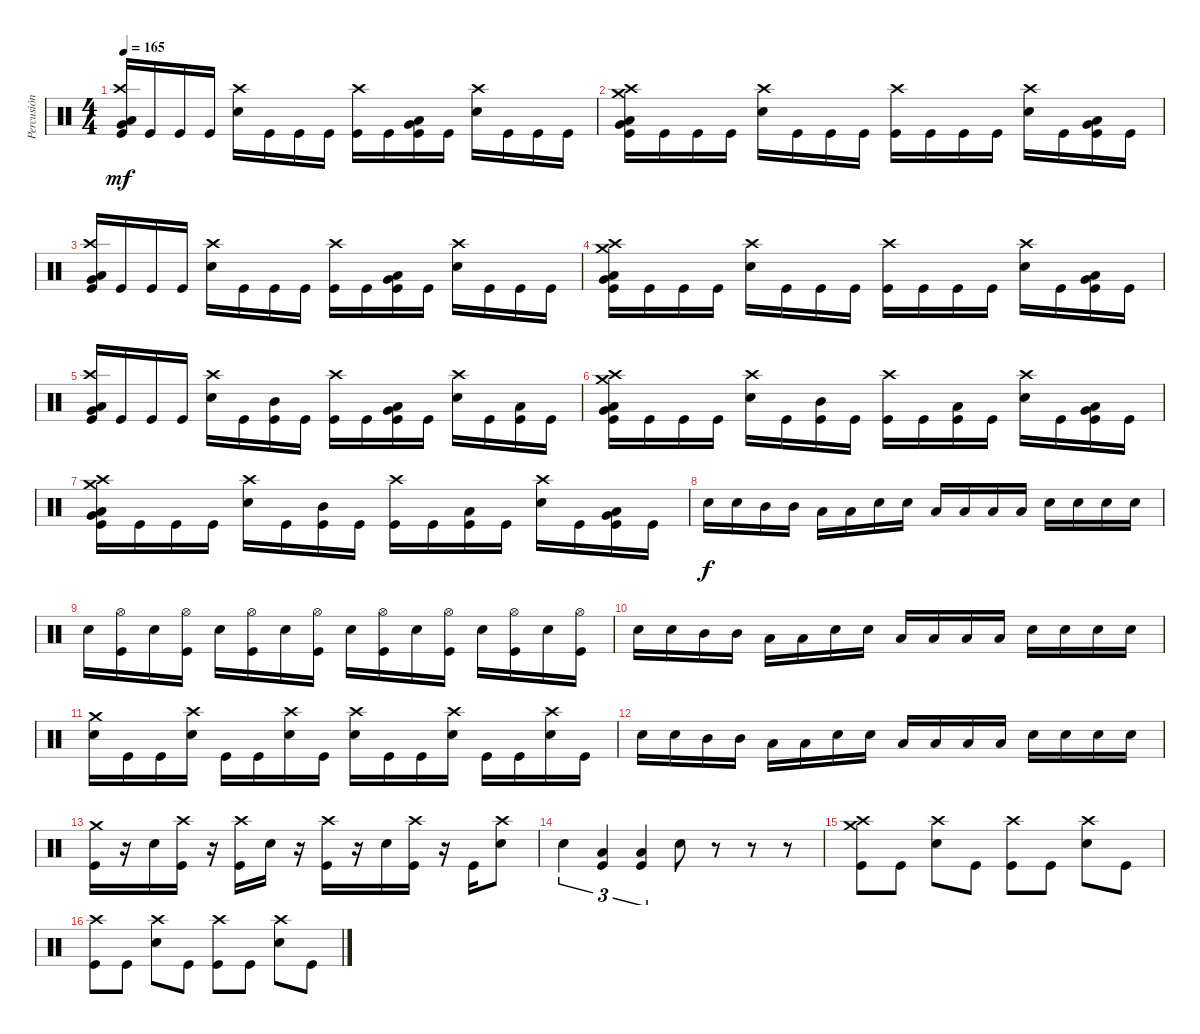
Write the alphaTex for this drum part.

\track ("Percusión" "Percusión") {instrument percussion}
\staff {score}
\articulation defaults
\ts (4 4)
\tempo 165
\clef neutral
\ks c
("Very Low Tom (hit)" "Low Tom (hit)" "Crash high (hit)" "Kick (hit)").16{dy mf} "Kick (hit)".16 "Kick (hit)".16 "Kick (hit)".16 ("Crash high (hit)" "Electric Snare (hit)").16 "Kick (hit)".16 "Kick (hit)".16 "Kick (hit)".16 ("Crash high (hit)" "Kick (hit)").16 "Kick (hit)".16 ("Very Low Tom (hit)" "Low Tom (hit)" "Kick (hit)").16 "Kick (hit)".16 ("Crash high (hit)" "Electric Snare (hit)").16 "Kick (hit)".16 "Kick (hit)".16 "Kick (hit)".16 |
("Very Low Tom (hit)" "Low Tom (hit)" "Crash medium (hit)" "Crash high (hit)" "Kick (hit)").16 "Kick (hit)".16 "Kick (hit)".16 "Kick (hit)".16 ("Crash high (hit)" "Electric Snare (hit)").16 "Kick (hit)".16 "Kick (hit)".16 "Kick (hit)".16 ("Crash high (hit)" "Kick (hit)").16 "Kick (hit)".16 "Kick (hit)".16 "Kick (hit)".16 ("Crash high (hit)" "Electric Snare (hit)").16 "Kick (hit)".16 ("Very Low Tom (hit)" "Low Tom (hit)" "Kick (hit)").16 "Kick (hit)".16 |
("Very Low Tom (hit)" "Low Tom (hit)" "Crash high (hit)" "Kick (hit)").16 "Kick (hit)".16 "Kick (hit)".16 "Kick (hit)".16 ("Crash high (hit)" "Electric Snare (hit)").16 "Kick (hit)".16 "Kick (hit)".16 "Kick (hit)".16 ("Crash high (hit)" "Kick (hit)").16 "Kick (hit)".16 ("Very Low Tom (hit)" "Low Tom (hit)" "Kick (hit)").16 "Kick (hit)".16 ("Crash high (hit)" "Electric Snare (hit)").16 "Kick (hit)".16 "Kick (hit)".16 "Kick (hit)".16 |
("Very Low Tom (hit)" "Low Tom (hit)" "Crash medium (hit)" "Crash high (hit)" "Kick (hit)").16 "Kick (hit)".16 "Kick (hit)".16 "Kick (hit)".16 ("Crash high (hit)" "Electric Snare (hit)").16 "Kick (hit)".16 "Kick (hit)".16 "Kick (hit)".16 ("Crash high (hit)" "Kick (hit)").16 "Kick (hit)".16 "Kick (hit)".16 "Kick (hit)".16 ("Crash high (hit)" "Electric Snare (hit)").16 "Kick (hit)".16 ("Very Low Tom (hit)" "Low Tom (hit)" "Kick (hit)").16 "Kick (hit)".16 |
("Very Low Tom (hit)" "Low Tom (hit)" "Crash high (hit)" "Kick (hit)").16 "Kick (hit)".16 "Kick (hit)".16 "Kick (hit)".16 ("Crash high (hit)" "Electric Snare (hit)").16 "Kick (hit)".16 ("Mid Tom (hit)" "Kick (hit)").16 "Kick (hit)".16 ("Crash high (hit)" "Kick (hit)").16 "Kick (hit)".16 ("Very Low Tom (hit)" "Low Tom (hit)" "Kick (hit)").16 "Kick (hit)".16 ("Crash high (hit)" "Electric Snare (hit)").16 "Kick (hit)".16 ("Low Tom (hit)" "Kick (hit)").16 "Kick (hit)".16 |
("Very Low Tom (hit)" "Low Tom (hit)" "Crash medium (hit)" "Crash high (hit)" "Kick (hit)").16 "Kick (hit)".16 "Kick (hit)".16 "Kick (hit)".16 ("Crash high (hit)" "Electric Snare (hit)").16 "Kick (hit)".16 ("Mid Tom (hit)" "Kick (hit)").16 "Kick (hit)".16 ("Crash high (hit)" "Kick (hit)").16 "Kick (hit)".16 ("Low Tom (hit)" "Kick (hit)").16 "Kick (hit)".16 ("Crash high (hit)" "Electric Snare (hit)").16 "Kick (hit)".16 ("Very Low Tom (hit)" "Low Tom (hit)" "Kick (hit)").16 "Kick (hit)".16 |
("Very Low Tom (hit)" "Low Tom (hit)" "Crash medium (hit)" "Crash high (hit)" "Kick (hit)").16 "Kick (hit)".16 "Kick (hit)".16 "Kick (hit)".16 ("Crash high (hit)" "Electric Snare (hit)").16 "Kick (hit)".16 ("Mid Tom (hit)" "Kick (hit)").16 "Kick (hit)".16 ("Crash high (hit)" "Kick (hit)").16 "Kick (hit)".16 ("Low Tom (hit)" "Kick (hit)").16 "Kick (hit)".16 ("Crash high (hit)" "Electric Snare (hit)").16 "Kick (hit)".16 ("Very Low Tom (hit)" "Low Tom (hit)" "Kick (hit)").16 "Kick (hit)".16 |
"Electric Snare (hit)".16{dy f} "Electric Snare (hit)".16 "Mid Tom (hit)".16 "Mid Tom (hit)".16 "Low Tom (hit)".16 "Low Tom (hit)".16 "Electric Snare (hit)".16 "Electric Snare (hit)".16 "Low Tom (hit)".16 "Low Tom (hit)".16 "Low Tom (hit)".16 "Low Tom (hit)".16 "Electric Snare (hit)".16 "Electric Snare (hit)".16 "Electric Snare (hit)".16 "Electric Snare (hit)".16 |
"Electric Snare (hit)".16 ("Hi-Hat (open)" "Kick (hit)").16 "Electric Snare (hit)".16 ("Hi-Hat (open)" "Kick (hit)").16 "Electric Snare (hit)".16 ("Hi-Hat (open)" "Kick (hit)").16 "Electric Snare (hit)".16 ("Hi-Hat (open)" "Kick (hit)").16 "Electric Snare (hit)".16 ("Hi-Hat (open)" "Kick (hit)").16 "Electric Snare (hit)".16 ("Hi-Hat (open)" "Kick (hit)").16 "Electric Snare (hit)".16 ("Hi-Hat (open)" "Kick (hit)").16 "Electric Snare (hit)".16 ("Hi-Hat (open)" "Kick (hit)").16 |
"Electric Snare (hit)".16 "Electric Snare (hit)".16 "Mid Tom (hit)".16 "Mid Tom (hit)".16 "Low Tom (hit)".16 "Low Tom (hit)".16 "Electric Snare (hit)".16 "Electric Snare (hit)".16 "Low Tom (hit)".16 "Low Tom (hit)".16 "Low Tom (hit)".16 "Low Tom (hit)".16 "Electric Snare (hit)".16 "Electric Snare (hit)".16 "Electric Snare (hit)".16 "Electric Snare (hit)".16 |
("Crash medium (hit)" "Electric Snare (hit)").16 "Kick (hit)".16 "Kick (hit)".16 ("Crash high (hit)" "Electric Snare (hit)").16 "Kick (hit)".16 "Kick (hit)".16 ("Crash high (hit)" "Electric Snare (hit)").16 "Kick (hit)".16 ("Crash high (hit)" "Electric Snare (hit)").16 "Kick (hit)".16 "Kick (hit)".16 ("Crash high (hit)" "Electric Snare (hit)").16 "Kick (hit)".16 "Kick (hit)".16 ("Crash high (hit)" "Electric Snare (hit)").16 "Kick (hit)".16 |
"Electric Snare (hit)".16 "Electric Snare (hit)".16 "Mid Tom (hit)".16 "Mid Tom (hit)".16 "Low Tom (hit)".16 "Low Tom (hit)".16 "Electric Snare (hit)".16 "Electric Snare (hit)".16 "Low Tom (hit)".16 "Low Tom (hit)".16 "Low Tom (hit)".16 "Low Tom (hit)".16 "Electric Snare (hit)".16 "Electric Snare (hit)".16 "Electric Snare (hit)".16 "Electric Snare (hit)".16 |
("Crash medium (hit)" "Kick (hit)").16 r.16 "Electric Snare (hit)".16 ("Crash high (hit)" "Kick (hit)").16 r.16 ("Crash high (hit)" "Kick (hit)").16 "Electric Snare (hit)".16 r.16 ("Crash high (hit)" "Kick (hit)").16 r.16 "Electric Snare (hit)".16 ("Crash high (hit)" "Kick (hit)").16 r.16 "Kick (hit)".16 ("Crash high (hit)" "Electric Snare (hit)").8 |
"Electric Snare (hit)".4{tu (3 2)} ("Low Tom (hit)" "Kick (hit)").4{tu (3 2)} ("Low Tom (hit)" "Kick (hit)").4{tu (3 2)} "Electric Snare (hit)".8 r.8 r.8 r.8 |
("Crash medium (hit)" "Crash high (hit)" "Kick (hit)").8 "Kick (hit)".8 ("Crash high (hit)" "Electric Snare (hit)").8 "Kick (hit)".8 ("Crash high (hit)" "Kick (hit)").8 "Kick (hit)".8 ("Crash high (hit)" "Electric Snare (hit)").8 "Kick (hit)".8 |
("Crash high (hit)" "Kick (hit)").8 "Kick (hit)".8 ("Crash high (hit)" "Electric Snare (hit)").8 "Kick (hit)".8 ("Crash high (hit)" "Kick (hit)").8 "Kick (hit)".8 ("Crash high (hit)" "Electric Snare (hit)").8 "Kick (hit)".8
